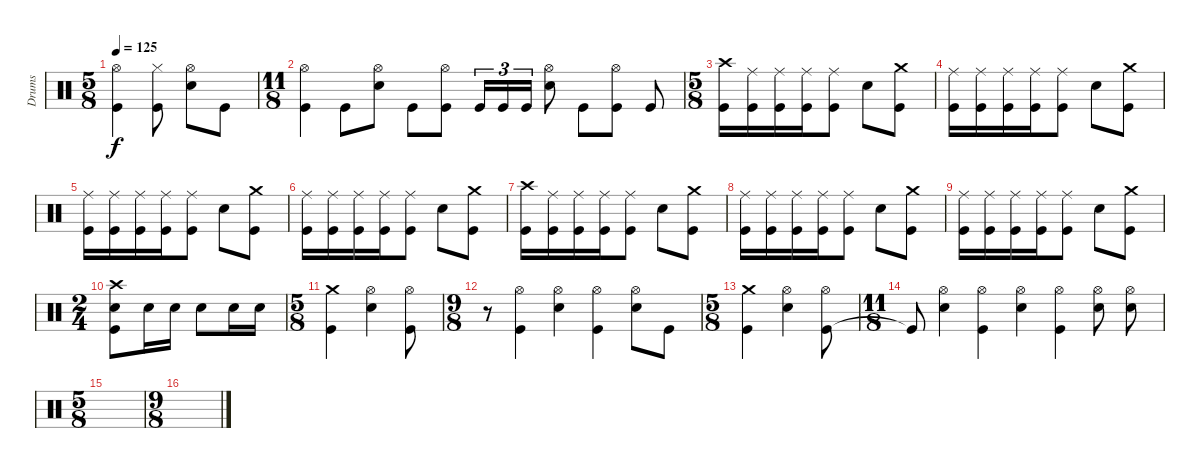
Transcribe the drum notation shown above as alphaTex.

\track ("Drums" "Drums") {instrument percussion}
\staff {score}
\articulation defaults
\ts (5 8)
\tempo 125
\clef neutral
\ks c
("Kick (hit)" "Hi-Hat (open)").4{dy f} ("Kick (hit)" "Hi-Hat (closed)").8 ("Snare (hit) 2" "Hi-Hat (open)").8 "Kick (hit)".8 |
\ts (11 8)
("Kick (hit)" "Hi-Hat (open)").4 "Kick (hit)".8 ("Snare (hit) 2" "Hi-Hat (open)").8 "Kick (hit)".8 ("Kick (hit)" "Hi-Hat (open)").8 "Kick (hit)".16{tu (3 2)} "Kick (hit)".16{tu (3 2)} "Kick (hit)".16{tu (3 2)} ("Snare (hit) 2" "Hi-Hat (open)").8 "Kick (hit)".8 ("Kick (hit)" "Hi-Hat (open)").8 "Kick (hit)".8 |
\ts (5 8)
("Kick (hit)" "Crash high (hit)").16 ("Kick (hit)" "Ride (middle)").16 ("Kick (hit)" "Ride (middle)").16 ("Kick (hit)" "Ride (middle)").16 ("Kick (hit)" "Ride (middle)").8 "Snare (hit) 2".8 ("Kick (hit)" "Crash medium (hit)").8 |
("Kick (hit)" "Ride (middle)").16 ("Kick (hit)" "Ride (middle)").16 ("Kick (hit)" "Ride (middle)").16 ("Kick (hit)" "Ride (middle)").16 ("Kick (hit)" "Ride (middle)").8 "Snare (hit) 2".8 ("Kick (hit)" "Crash medium (hit)").8 |
("Kick (hit)" "Ride (middle)").16 ("Kick (hit)" "Ride (middle)").16 ("Kick (hit)" "Ride (middle)").16 ("Kick (hit)" "Ride (middle)").16 ("Kick (hit)" "Ride (middle)").8 "Snare (hit) 2".8 ("Kick (hit)" "Crash medium (hit)").8 |
("Kick (hit)" "Ride (middle)").16 ("Kick (hit)" "Ride (middle)").16 ("Kick (hit)" "Ride (middle)").16 ("Kick (hit)" "Ride (middle)").16 ("Kick (hit)" "Ride (middle)").8 "Snare (hit) 2".8 ("Kick (hit)" "Crash medium (hit)").8 |
("Kick (hit)" "Crash high (hit)").16 ("Kick (hit)" "Ride (middle)").16 ("Kick (hit)" "Ride (middle)").16 ("Kick (hit)" "Ride (middle)").16 ("Kick (hit)" "Ride (middle)").8 "Snare (hit) 2".8 ("Kick (hit)" "Crash medium (hit)").8 |
("Kick (hit)" "Ride (middle)").16 ("Kick (hit)" "Ride (middle)").16 ("Kick (hit)" "Ride (middle)").16 ("Kick (hit)" "Ride (middle)").16 ("Kick (hit)" "Ride (middle)").8 "Snare (hit) 2".8 ("Kick (hit)" "Crash medium (hit)").8 |
("Kick (hit)" "Ride (middle)").16 ("Kick (hit)" "Ride (middle)").16 ("Kick (hit)" "Ride (middle)").16 ("Kick (hit)" "Ride (middle)").16 ("Kick (hit)" "Ride (middle)").8 "Snare (hit) 2".8 ("Kick (hit)" "Crash medium (hit)").8 |
\ts (2 4)
("Kick (hit)" "Snare (hit) 2" "Crash high (hit)").8 "Snare (hit) 2".16 "Snare (hit) 2".16 "Snare (hit) 2".8 "Snare (hit) 2".16 "Snare (hit) 2".16 |
\ts (5 8)
("Kick (hit)" "Crash medium (hit)").4 ("Snare (hit) 2" "Hi-Hat (open)").4 ("Kick (hit)" "Hi-Hat (open)").8 |
\ts (9 8)
r.8 ("Kick (hit)" "Hi-Hat (open)").4 ("Snare (hit) 2" "Hi-Hat (open)").4 ("Kick (hit)" "Hi-Hat (open)").4 ("Snare (hit) 2" "Hi-Hat (open)").8 "Kick (hit)".8 |
\ts (5 8)
("Kick (hit)" "Crash medium (hit)").4 ("Snare (hit) 2" "Hi-Hat (open)").4 ("Kick (hit)" "Hi-Hat (open)").8 |
\ts (11 8)
"Kick (hit)"{t}.8 ("Snare (hit) 2" "Hi-Hat (open)").4 ("Kick (hit)" "Hi-Hat (open)").4 ("Snare (hit) 2" "Hi-Hat (open)").4 ("Kick (hit)" "Hi-Hat (open)").4 ("Snare (hit) 2" "Hi-Hat (open)").8 ("Snare (hit) 2" "Hi-Hat (open)").8 |
\ts (5 8)
|
\ts (9 8)
